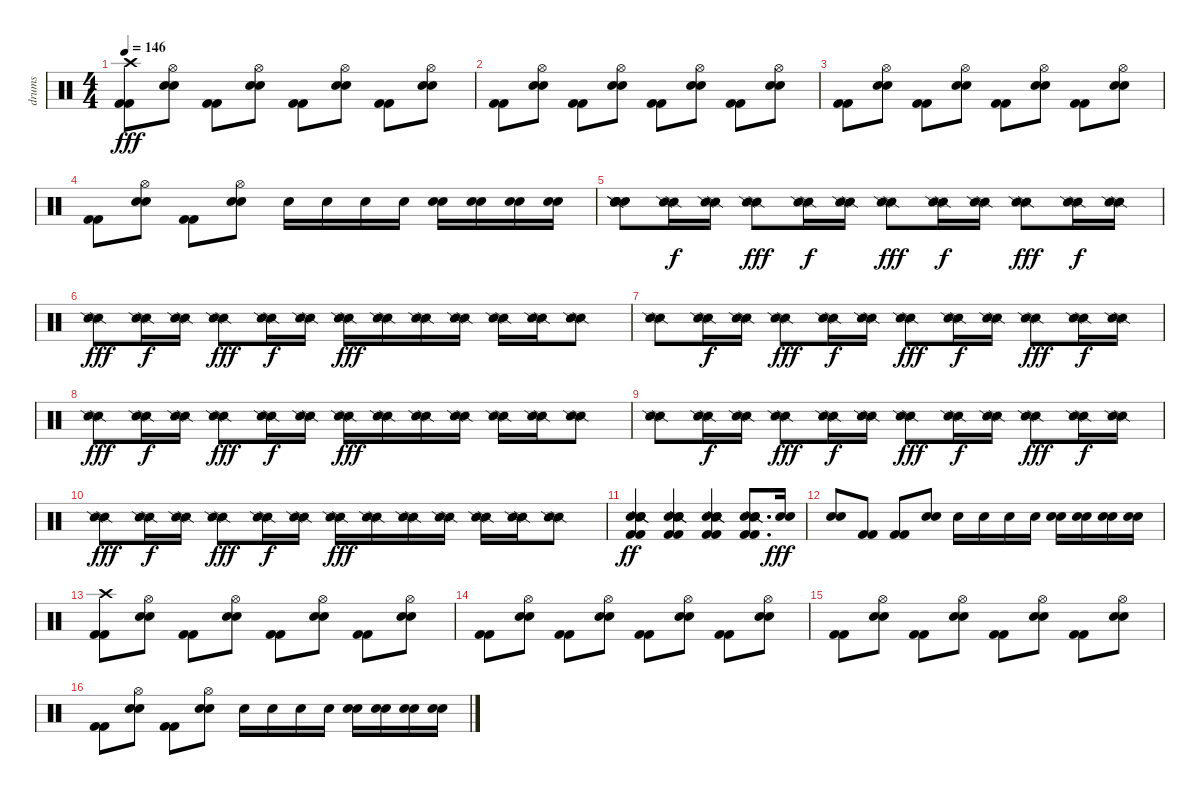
\track ("drums" "drums") {instrument percussion}
\staff {score}
\articulation defaults
\ts (4 4)
\tempo 146
\clef neutral
\ks c
("Crash high (hit)" "Kick (hit) 2" "Kick (hit) 2").8{dy fff} ("Hi-Hat (open)" "Electric Snare (hit)" "Electric Snare (hit)").8 ("Kick (hit) 2" "Kick (hit) 2").8 ("Hi-Hat (open)" "Electric Snare (hit)" "Electric Snare (hit)").8 ("Kick (hit) 2" "Kick (hit) 2").8 ("Hi-Hat (open)" "Electric Snare (hit)" "Electric Snare (hit)").8 ("Kick (hit) 2" "Kick (hit) 2").8 ("Hi-Hat (open)" "Electric Snare (hit)" "Electric Snare (hit)").8 |
("Kick (hit) 2" "Kick (hit) 2").8 ("Hi-Hat (open)" "Electric Snare (hit)" "Electric Snare (hit)").8 ("Kick (hit) 2" "Kick (hit) 2").8 ("Hi-Hat (open)" "Electric Snare (hit)" "Electric Snare (hit)").8 ("Kick (hit) 2" "Kick (hit) 2").8 ("Hi-Hat (open)" "Electric Snare (hit)" "Electric Snare (hit)").8 ("Kick (hit) 2" "Kick (hit) 2").8 ("Hi-Hat (open)" "Electric Snare (hit)" "Electric Snare (hit)").8 |
("Kick (hit) 2" "Kick (hit) 2").8 ("Hi-Hat (open)" "Electric Snare (hit)" "Electric Snare (hit)").8 ("Kick (hit) 2" "Kick (hit) 2").8 ("Hi-Hat (open)" "Electric Snare (hit)" "Electric Snare (hit)").8 ("Kick (hit) 2" "Kick (hit) 2").8 ("Hi-Hat (open)" "Electric Snare (hit)" "Electric Snare (hit)").8 ("Kick (hit) 2" "Kick (hit) 2").8 ("Hi-Hat (open)" "Electric Snare (hit)" "Electric Snare (hit)").8 |
("Kick (hit) 2" "Kick (hit) 2").8 ("Hi-Hat (open)" "Electric Snare (hit)" "Electric Snare (hit)").8 ("Kick (hit) 2" "Kick (hit) 2").8 ("Hi-Hat (open)" "Electric Snare (hit)" "Electric Snare (hit)").8 "Electric Snare (hit)".16 "Electric Snare (hit)".16 "Electric Snare (hit)".16 "Electric Snare (hit)".16 ("Electric Snare (hit)" "Electric Snare (hit)").16 ("Electric Snare (hit)" "Electric Snare (hit)").16 ("Electric Snare (hit)" "Electric Snare (hit)").16 ("Electric Snare (hit)" "Electric Snare (hit)").16 |
("Electric Snare (hit)" "Electric Snare (hit)" "Snare (side stick) 2" "Snare (side stick) 2" "Electric Snare (hit)").8 ("Snare (side stick) 2" "Snare (side stick) 2").16{dy f} ("Snare (side stick) 2" "Snare (side stick) 2").16 ("Snare (side stick) 2" "Snare (side stick) 2").8{dy fff} ("Snare (side stick) 2" "Snare (side stick) 2").16{dy f} ("Snare (side stick) 2" "Snare (side stick) 2").16 ("Snare (side stick) 2" "Snare (side stick) 2").8{dy fff} ("Snare (side stick) 2" "Snare (side stick) 2").16{dy f} ("Snare (side stick) 2" "Snare (side stick) 2").16 ("Snare (side stick) 2" "Snare (side stick) 2").8{dy fff} ("Snare (side stick) 2" "Snare (side stick) 2").16{dy f} ("Snare (side stick) 2" "Snare (side stick) 2").16 |
("Snare (side stick) 2" "Snare (side stick) 2").8{dy fff} ("Snare (side stick) 2" "Snare (side stick) 2").16{dy f} ("Snare (side stick) 2" "Snare (side stick) 2").16 ("Snare (side stick) 2" "Snare (side stick) 2").8{dy fff} ("Snare (side stick) 2" "Snare (side stick) 2").16{dy f} ("Snare (side stick) 2" "Snare (side stick) 2").16 ("Snare (side stick) 2" "Snare (side stick) 2").16{dy fff} ("Snare (side stick) 2" "Snare (side stick) 2").16 ("Snare (side stick) 2" "Snare (side stick) 2").16 ("Snare (side stick) 2" "Snare (side stick) 2").16 ("Snare (side stick) 2" "Snare (side stick) 2").16 ("Snare (side stick) 2" "Snare (side stick) 2").16 ("Snare (side stick) 2" "Snare (side stick) 2").8 |
("Snare (side stick) 2" "Snare (side stick) 2").8 ("Snare (side stick) 2" "Snare (side stick) 2").16{dy f} ("Snare (side stick) 2" "Snare (side stick) 2").16 ("Snare (side stick) 2" "Snare (side stick) 2").8{dy fff} ("Snare (side stick) 2" "Snare (side stick) 2").16{dy f} ("Snare (side stick) 2" "Snare (side stick) 2").16 ("Snare (side stick) 2" "Snare (side stick) 2").8{dy fff} ("Snare (side stick) 2" "Snare (side stick) 2").16{dy f} ("Snare (side stick) 2" "Snare (side stick) 2").16 ("Snare (side stick) 2" "Snare (side stick) 2").8{dy fff} ("Snare (side stick) 2" "Snare (side stick) 2").16{dy f} ("Snare (side stick) 2" "Snare (side stick) 2").16 |
("Snare (side stick) 2" "Snare (side stick) 2").8{dy fff} ("Snare (side stick) 2" "Snare (side stick) 2").16{dy f} ("Snare (side stick) 2" "Snare (side stick) 2").16 ("Snare (side stick) 2" "Snare (side stick) 2").8{dy fff} ("Snare (side stick) 2" "Snare (side stick) 2").16{dy f} ("Snare (side stick) 2" "Snare (side stick) 2").16 ("Snare (side stick) 2" "Snare (side stick) 2").16{dy fff} ("Snare (side stick) 2" "Snare (side stick) 2").16 ("Snare (side stick) 2" "Snare (side stick) 2").16 ("Snare (side stick) 2" "Snare (side stick) 2").16 ("Snare (side stick) 2" "Snare (side stick) 2").16 ("Snare (side stick) 2" "Snare (side stick) 2").16 ("Snare (side stick) 2" "Snare (side stick) 2").8 |
("Snare (side stick) 2" "Snare (side stick) 2").8 ("Snare (side stick) 2" "Snare (side stick) 2").16{dy f} ("Snare (side stick) 2" "Snare (side stick) 2").16 ("Snare (side stick) 2" "Snare (side stick) 2").8{dy fff} ("Snare (side stick) 2" "Snare (side stick) 2").16{dy f} ("Snare (side stick) 2" "Snare (side stick) 2").16 ("Snare (side stick) 2" "Snare (side stick) 2").8{dy fff} ("Snare (side stick) 2" "Snare (side stick) 2").16{dy f} ("Snare (side stick) 2" "Snare (side stick) 2").16 ("Snare (side stick) 2" "Snare (side stick) 2").8{dy fff} ("Snare (side stick) 2" "Snare (side stick) 2").16{dy f} ("Snare (side stick) 2" "Snare (side stick) 2").16 |
("Snare (side stick) 2" "Snare (side stick) 2").8{dy fff} ("Snare (side stick) 2" "Snare (side stick) 2").16{dy f} ("Snare (side stick) 2" "Snare (side stick) 2").16 ("Snare (side stick) 2" "Snare (side stick) 2").8{dy fff} ("Snare (side stick) 2" "Snare (side stick) 2").16{dy f} ("Snare (side stick) 2" "Snare (side stick) 2").16 ("Snare (side stick) 2" "Snare (side stick) 2").16{dy fff} ("Snare (side stick) 2" "Snare (side stick) 2").16 ("Snare (side stick) 2" "Snare (side stick) 2").16 ("Snare (side stick) 2" "Snare (side stick) 2").16 ("Snare (side stick) 2" "Snare (side stick) 2").16 ("Snare (side stick) 2" "Snare (side stick) 2").16 ("Snare (side stick) 2" "Snare (side stick) 2").8 |
("Electric Snare (hit)" "Electric Snare (hit)" "Snare (side stick) 2" "Snare (side stick) 2" "Kick (hit) 2" "Kick (hit) 2").4{dy ff} ("Electric Snare (hit)" "Electric Snare (hit)" "Snare (side stick) 2" "Snare (side stick) 2" "Kick (hit) 2" "Kick (hit) 2").4 ("Electric Snare (hit)" "Electric Snare (hit)" "Snare (side stick) 2" "Snare (side stick) 2" "Kick (hit) 2" "Kick (hit) 2").4 ("Electric Snare (hit)" "Electric Snare (hit)" "Snare (side stick) 2" "Snare (side stick) 2" "Kick (hit) 2" "Kick (hit) 2").8{d} ("Electric Snare (hit)" "Electric Snare (hit)").16{dy fff} |
("Electric Snare (hit)" "Electric Snare (hit)").8 ("Kick (hit) 2" "Kick (hit) 2").8 ("Kick (hit) 2" "Kick (hit) 2").8 ("Electric Snare (hit)" "Electric Snare (hit)").8 "Electric Snare (hit)".16 "Electric Snare (hit)".16 "Electric Snare (hit)".16 "Electric Snare (hit)".16 ("Electric Snare (hit)" "Electric Snare (hit)").16 ("Electric Snare (hit)" "Electric Snare (hit)").16 ("Electric Snare (hit)" "Electric Snare (hit)").16 ("Electric Snare (hit)" "Electric Snare (hit)").16 |
("Crash high (hit)" "Kick (hit) 2" "Kick (hit) 2").8 ("Hi-Hat (open)" "Electric Snare (hit)" "Electric Snare (hit)").8 ("Kick (hit) 2" "Kick (hit) 2").8 ("Hi-Hat (open)" "Electric Snare (hit)" "Electric Snare (hit)").8 ("Kick (hit) 2" "Kick (hit) 2").8 ("Hi-Hat (open)" "Electric Snare (hit)" "Electric Snare (hit)").8 ("Kick (hit) 2" "Kick (hit) 2").8 ("Hi-Hat (open)" "Electric Snare (hit)" "Electric Snare (hit)").8 |
("Kick (hit) 2" "Kick (hit) 2").8 ("Hi-Hat (open)" "Electric Snare (hit)" "Electric Snare (hit)").8 ("Kick (hit) 2" "Kick (hit) 2").8 ("Hi-Hat (open)" "Electric Snare (hit)" "Electric Snare (hit)").8 ("Kick (hit) 2" "Kick (hit) 2").8 ("Hi-Hat (open)" "Electric Snare (hit)" "Electric Snare (hit)").8 ("Kick (hit) 2" "Kick (hit) 2").8 ("Hi-Hat (open)" "Electric Snare (hit)" "Electric Snare (hit)").8 |
("Kick (hit) 2" "Kick (hit) 2").8 ("Hi-Hat (open)" "Electric Snare (hit)" "Electric Snare (hit)").8 ("Kick (hit) 2" "Kick (hit) 2").8 ("Hi-Hat (open)" "Electric Snare (hit)" "Electric Snare (hit)").8 ("Kick (hit) 2" "Kick (hit) 2").8 ("Hi-Hat (open)" "Electric Snare (hit)" "Electric Snare (hit)").8 ("Kick (hit) 2" "Kick (hit) 2").8 ("Hi-Hat (open)" "Electric Snare (hit)" "Electric Snare (hit)").8 |
("Kick (hit) 2" "Kick (hit) 2").8 ("Hi-Hat (open)" "Electric Snare (hit)" "Electric Snare (hit)").8 ("Kick (hit) 2" "Kick (hit) 2").8 ("Hi-Hat (open)" "Electric Snare (hit)" "Electric Snare (hit)").8 "Electric Snare (hit)".16 "Electric Snare (hit)".16 "Electric Snare (hit)".16 "Electric Snare (hit)".16 ("Electric Snare (hit)" "Electric Snare (hit)").16 ("Electric Snare (hit)" "Electric Snare (hit)").16 ("Electric Snare (hit)" "Electric Snare (hit)").16 ("Electric Snare (hit)" "Electric Snare (hit)").16
